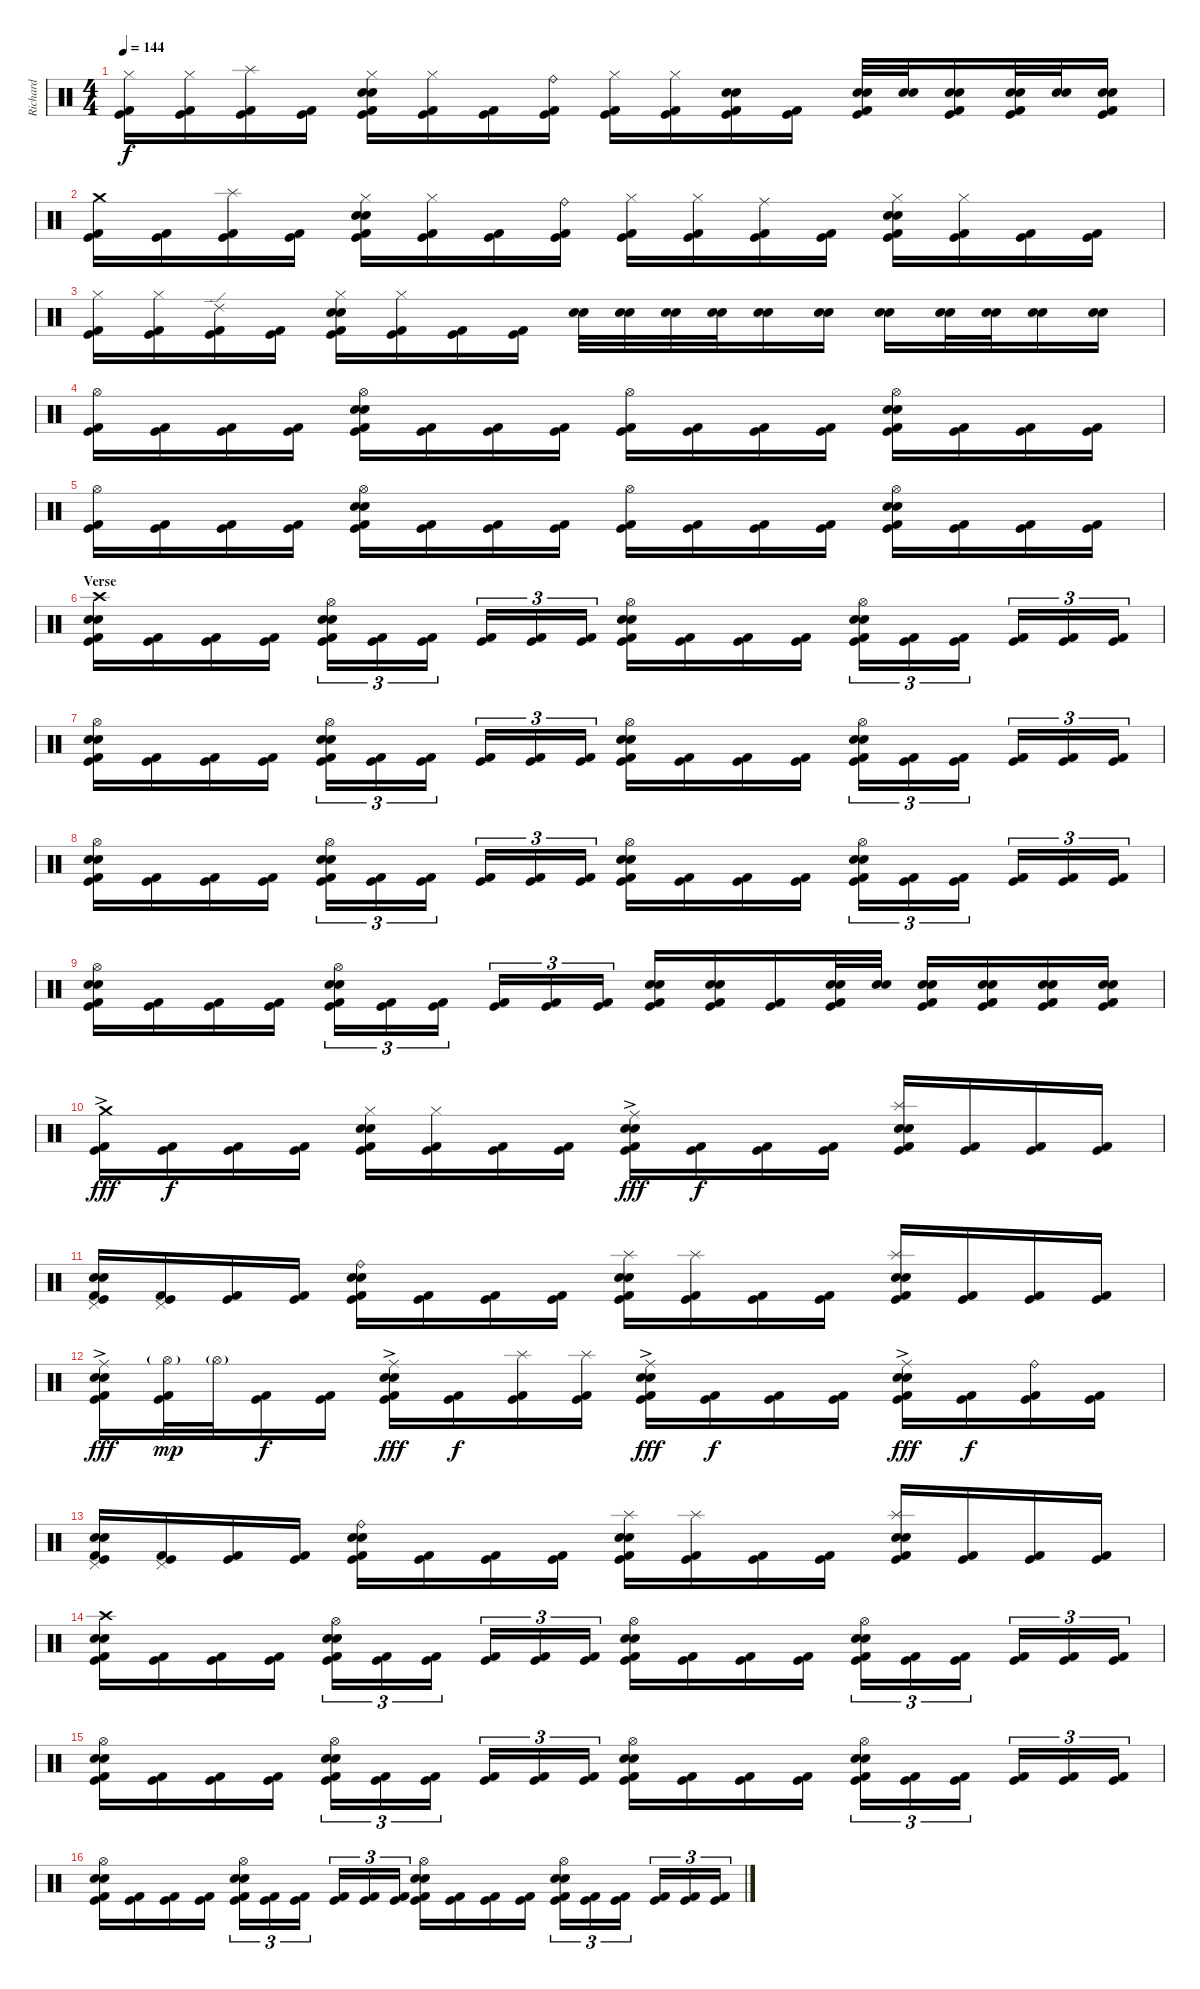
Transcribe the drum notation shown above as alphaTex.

\track ("Richard" "Richard") {instrument percussion}
\staff {score}
\articulation defaults
\ts (4 4)
\tempo 144
\clef neutral
\ks c
("Hi-Hat (closed)" "Kick (hit) 2" "Kick (hit)").16{dy f} ("Hi-Hat (closed)" "Kick (hit) 2" "Kick (hit)").16 ("Splash (hit)" "Kick (hit) 2" "Kick (hit)").16 ("Kick (hit) 2" "Kick (hit)").16 ("Hi-Hat (closed)" "Snare (hit) 2" "Electric Snare (hit)" "Kick (hit) 2" "Kick (hit)").16 ("Hi-Hat (closed)" "Kick (hit) 2" "Kick (hit)").16 ("Kick (hit) 2" "Kick (hit)").16 ("Ride (bell)" "Kick (hit) 2" "Kick (hit)").16 ("Hi-Hat (closed)" "Kick (hit) 2" "Kick (hit)").16 ("Hi-Hat (closed)" "Kick (hit) 2" "Kick (hit)").16 ("Snare (hit) 2" "Electric Snare (hit)" "Kick (hit) 2" "Kick (hit)").16 ("Kick (hit) 2" "Kick (hit)").16 ("Snare (hit) 2" "Electric Snare (hit)" "Kick (hit) 2" "Kick (hit)").32 ("Snare (hit) 2" "Electric Snare (hit)").32 ("Snare (hit) 2" "Electric Snare (hit)" "Kick (hit) 2" "Kick (hit)").16 ("Snare (hit) 2" "Electric Snare (hit)" "Kick (hit) 2" "Kick (hit)").32 ("Snare (hit) 2" "Electric Snare (hit)").32 ("Snare (hit) 2" "Electric Snare (hit)" "Kick (hit) 2" "Kick (hit)").16 |
("Crash medium (hit)" "Kick (hit) 2" "Kick (hit)").16 ("Kick (hit) 2" "Kick (hit)").16 ("Splash (hit)" "Kick (hit) 2" "Kick (hit)").16 ("Kick (hit) 2" "Kick (hit)").16 ("Hi-Hat (closed)" "Snare (hit) 2" "Electric Snare (hit)" "Kick (hit) 2" "Kick (hit)").16 ("Hi-Hat (closed)" "Kick (hit) 2" "Kick (hit)").16 ("Kick (hit) 2" "Kick (hit)").16 ("Ride (bell)" "Kick (hit) 2" "Kick (hit)").16 ("Hi-Hat (closed)" "Kick (hit) 2" "Kick (hit)").16 ("Hi-Hat (closed)" "Kick (hit) 2" "Kick (hit)").16 ("Ride (middle)" "Kick (hit) 2" "Kick (hit)").16 ("Kick (hit) 2" "Kick (hit)").16 ("Hi-Hat (closed)" "Snare (hit) 2" "Electric Snare (hit)" "Kick (hit) 2" "Kick (hit)").16 ("Hi-Hat (closed)" "Kick (hit) 2" "Kick (hit)").16 ("Kick (hit) 2" "Kick (hit)").16 ("Kick (hit) 2" "Kick (hit)").16 |
("Hi-Hat (closed)" "Kick (hit) 2" "Kick (hit)").16 ("Hi-Hat (closed)" "Kick (hit) 2" "Kick (hit)").16 ("Ride (edge) 2" "Kick (hit) 2" "Kick (hit)").16 ("Kick (hit) 2" "Kick (hit)").16 ("Hi-Hat (closed)" "Snare (hit) 2" "Electric Snare (hit)" "Kick (hit) 2" "Kick (hit)").16 ("Hi-Hat (closed)" "Kick (hit) 2" "Kick (hit)").16 ("Kick (hit) 2" "Kick (hit)").16 ("Kick (hit) 2" "Kick (hit)").16 ("Snare (hit) 2" "Electric Snare (hit)").32 ("Snare (hit) 2" "Electric Snare (hit)").32 ("Snare (hit) 2" "Electric Snare (hit)").32 ("Snare (hit) 2" "Electric Snare (hit)").32 ("Snare (hit) 2" "Electric Snare (hit)").16 ("Snare (hit) 2" "Electric Snare (hit)").16 ("Snare (hit) 2" "Electric Snare (hit)").16 ("Snare (hit) 2" "Electric Snare (hit)").32 ("Snare (hit) 2" "Electric Snare (hit)").32 ("Snare (hit) 2" "Electric Snare (hit)").16 ("Snare (hit) 2" "Electric Snare (hit)").16 |
("Hi-Hat (open)" "Kick (hit) 2" "Kick (hit)").16 ("Kick (hit) 2" "Kick (hit)").16 ("Kick (hit) 2" "Kick (hit)").16 ("Kick (hit) 2" "Kick (hit)").16 ("Hi-Hat (open)" "Snare (hit) 2" "Electric Snare (hit)" "Kick (hit) 2" "Kick (hit)").16 ("Kick (hit) 2" "Kick (hit)").16 ("Kick (hit) 2" "Kick (hit)").16 ("Kick (hit) 2" "Kick (hit)").16 ("Hi-Hat (open)" "Kick (hit) 2" "Kick (hit)").16 ("Kick (hit) 2" "Kick (hit)").16 ("Kick (hit) 2" "Kick (hit)").16 ("Kick (hit) 2" "Kick (hit)").16 ("Hi-Hat (open)" "Snare (hit) 2" "Electric Snare (hit)" "Kick (hit) 2" "Kick (hit)").16 ("Kick (hit) 2" "Kick (hit)").16 ("Kick (hit) 2" "Kick (hit)").16 ("Kick (hit) 2" "Kick (hit)").16 |
("Hi-Hat (open)" "Kick (hit) 2" "Kick (hit)").16 ("Kick (hit) 2" "Kick (hit)").16 ("Kick (hit) 2" "Kick (hit)").16 ("Kick (hit) 2" "Kick (hit)").16 ("Hi-Hat (open)" "Snare (hit) 2" "Electric Snare (hit)" "Kick (hit) 2" "Kick (hit)").16 ("Kick (hit) 2" "Kick (hit)").16 ("Kick (hit) 2" "Kick (hit)").16 ("Kick (hit) 2" "Kick (hit)").16 ("Hi-Hat (open)" "Kick (hit) 2" "Kick (hit)").16 ("Kick (hit) 2" "Kick (hit)").16 ("Kick (hit) 2" "Kick (hit)").16 ("Kick (hit) 2" "Kick (hit)").16 ("Hi-Hat (open)" "Snare (hit) 2" "Electric Snare (hit)" "Kick (hit) 2" "Kick (hit)").16 ("Kick (hit) 2" "Kick (hit)").16 ("Kick (hit) 2" "Kick (hit)").16 ("Kick (hit) 2" "Kick (hit)").16 |
\section ("" "Verse")
("Crash high (hit)" "Snare (hit) 2" "Electric Snare (hit)" "Kick (hit) 2" "Kick (hit)").16 ("Kick (hit) 2" "Kick (hit)").16 ("Kick (hit) 2" "Kick (hit)").16 ("Kick (hit) 2" "Kick (hit)").16 ("Hi-Hat (open)" "Snare (hit) 2" "Electric Snare (hit)" "Kick (hit) 2" "Kick (hit)").16{tu (3 2)} ("Kick (hit) 2" "Kick (hit)").16{tu (3 2)} ("Kick (hit) 2" "Kick (hit)").16{tu (3 2)} ("Kick (hit) 2" "Kick (hit)").16{tu (3 2)} ("Kick (hit) 2" "Kick (hit)").16{tu (3 2)} ("Kick (hit) 2" "Kick (hit)").16{tu (3 2)} ("Hi-Hat (open)" "Snare (hit) 2" "Electric Snare (hit)" "Kick (hit) 2" "Kick (hit)").16 ("Kick (hit) 2" "Kick (hit)").16 ("Kick (hit) 2" "Kick (hit)").16 ("Kick (hit) 2" "Kick (hit)").16 ("Hi-Hat (open)" "Snare (hit) 2" "Electric Snare (hit)" "Kick (hit) 2" "Kick (hit)").16{tu (3 2)} ("Kick (hit) 2" "Kick (hit)").16{tu (3 2)} ("Kick (hit) 2" "Kick (hit)").16{tu (3 2)} ("Kick (hit) 2" "Kick (hit)").16{tu (3 2)} ("Kick (hit) 2" "Kick (hit)").16{tu (3 2)} ("Kick (hit) 2" "Kick (hit)").16{tu (3 2)} |
("Hi-Hat (open)" "Snare (hit) 2" "Electric Snare (hit)" "Kick (hit) 2" "Kick (hit)").16 ("Kick (hit) 2" "Kick (hit)").16 ("Kick (hit) 2" "Kick (hit)").16 ("Kick (hit) 2" "Kick (hit)").16 ("Hi-Hat (open)" "Snare (hit) 2" "Electric Snare (hit)" "Kick (hit) 2" "Kick (hit)").16{tu (3 2)} ("Kick (hit) 2" "Kick (hit)").16{tu (3 2)} ("Kick (hit) 2" "Kick (hit)").16{tu (3 2)} ("Kick (hit) 2" "Kick (hit)").16{tu (3 2)} ("Kick (hit) 2" "Kick (hit)").16{tu (3 2)} ("Kick (hit) 2" "Kick (hit)").16{tu (3 2)} ("Hi-Hat (open)" "Snare (hit) 2" "Electric Snare (hit)" "Kick (hit) 2" "Kick (hit)").16 ("Kick (hit) 2" "Kick (hit)").16 ("Kick (hit) 2" "Kick (hit)").16 ("Kick (hit) 2" "Kick (hit)").16 ("Hi-Hat (open)" "Snare (hit) 2" "Electric Snare (hit)" "Kick (hit) 2" "Kick (hit)").16{tu (3 2)} ("Kick (hit) 2" "Kick (hit)").16{tu (3 2)} ("Kick (hit) 2" "Kick (hit)").16{tu (3 2)} ("Kick (hit) 2" "Kick (hit)").16{tu (3 2)} ("Kick (hit) 2" "Kick (hit)").16{tu (3 2)} ("Kick (hit) 2" "Kick (hit)").16{tu (3 2)} |
("Hi-Hat (open)" "Snare (hit) 2" "Electric Snare (hit)" "Kick (hit) 2" "Kick (hit)").16 ("Kick (hit) 2" "Kick (hit)").16 ("Kick (hit) 2" "Kick (hit)").16 ("Kick (hit) 2" "Kick (hit)").16 ("Hi-Hat (open)" "Snare (hit) 2" "Electric Snare (hit)" "Kick (hit) 2" "Kick (hit)").16{tu (3 2)} ("Kick (hit) 2" "Kick (hit)").16{tu (3 2)} ("Kick (hit) 2" "Kick (hit)").16{tu (3 2)} ("Kick (hit) 2" "Kick (hit)").16{tu (3 2)} ("Kick (hit) 2" "Kick (hit)").16{tu (3 2)} ("Kick (hit) 2" "Kick (hit)").16{tu (3 2)} ("Hi-Hat (open)" "Snare (hit) 2" "Electric Snare (hit)" "Kick (hit) 2" "Kick (hit)").16 ("Kick (hit) 2" "Kick (hit)").16 ("Kick (hit) 2" "Kick (hit)").16 ("Kick (hit) 2" "Kick (hit)").16 ("Hi-Hat (open)" "Snare (hit) 2" "Electric Snare (hit)" "Kick (hit) 2" "Kick (hit)").16{tu (3 2)} ("Kick (hit) 2" "Kick (hit)").16{tu (3 2)} ("Kick (hit) 2" "Kick (hit)").16{tu (3 2)} ("Kick (hit) 2" "Kick (hit)").16{tu (3 2)} ("Kick (hit) 2" "Kick (hit)").16{tu (3 2)} ("Kick (hit) 2" "Kick (hit)").16{tu (3 2)} |
("Hi-Hat (open)" "Snare (hit) 2" "Electric Snare (hit)" "Kick (hit) 2" "Kick (hit)").16 ("Kick (hit) 2" "Kick (hit)").16 ("Kick (hit) 2" "Kick (hit)").16 ("Kick (hit) 2" "Kick (hit)").16 ("Hi-Hat (open)" "Snare (hit) 2" "Electric Snare (hit)" "Kick (hit) 2" "Kick (hit)").16{tu (3 2)} ("Kick (hit) 2" "Kick (hit)").16{tu (3 2)} ("Kick (hit) 2" "Kick (hit)").16{tu (3 2)} ("Kick (hit) 2" "Kick (hit)").16{tu (3 2)} ("Kick (hit) 2" "Kick (hit)").16{tu (3 2)} ("Kick (hit) 2" "Kick (hit)").16{tu (3 2)} ("Snare (hit) 2" "Electric Snare (hit)" "Kick (hit) 2" "Kick (hit)").16 ("Snare (hit) 2" "Electric Snare (hit)" "Kick (hit) 2" "Kick (hit)").16 ("Kick (hit) 2" "Kick (hit)").16 ("Snare (hit) 2" "Electric Snare (hit)" "Kick (hit) 2" "Kick (hit)").32 ("Snare (hit) 2" "Electric Snare (hit)").32 ("Snare (hit) 2" "Electric Snare (hit)" "Kick (hit) 2" "Kick (hit)").16 ("Snare (hit) 2" "Electric Snare (hit)" "Kick (hit) 2" "Kick (hit)").16 ("Snare (hit) 2" "Electric Snare (hit)" "Kick (hit) 2" "Kick (hit)").16 ("Snare (hit) 2" "Electric Snare (hit)" "Kick (hit) 2" "Kick (hit)").16 |
("Crash medium (hit)"{ac} "Kick (hit) 2" "Kick (hit)").16{dy fff} ("Kick (hit) 2" "Kick (hit)").16{dy f} ("Kick (hit) 2" "Kick (hit)").16 ("Kick (hit) 2" "Kick (hit)").16 ("Hi-Hat (closed)" "Snare (hit) 2" "Electric Snare (hit)" "Kick (hit) 2" "Kick (hit)").16 ("Hi-Hat (closed)" "Kick (hit) 2" "Kick (hit)").16 ("Kick (hit) 2" "Kick (hit)").16 ("Kick (hit) 2" "Kick (hit)").16 ("Ride (middle)"{ac} "Snare (hit) 2" "Electric Snare (hit)" "Kick (hit) 2" "Kick (hit)").16{dy fff} ("Kick (hit) 2" "Kick (hit)").16{dy f} ("Kick (hit) 2" "Kick (hit)").16 ("Kick (hit) 2" "Kick (hit)").16 ("Splash (hit)" "Snare (hit) 2" "Electric Snare (hit)" "Kick (hit) 2" "Kick (hit)").16 ("Kick (hit) 2" "Kick (hit)").16 ("Kick (hit) 2" "Kick (hit)").16 ("Kick (hit) 2" "Kick (hit)").16 |
("Pedal Hi-Hat (hit)" "Snare (hit) 2" "Electric Snare (hit)" "Kick (hit) 2" "Kick (hit)").16 ("Pedal Hi-Hat (hit)" "Kick (hit) 2" "Kick (hit)").16 ("Kick (hit) 2" "Kick (hit)").16 ("Kick (hit) 2" "Kick (hit)").16 ("Ride (bell)" "Snare (hit) 2" "Electric Snare (hit)" "Kick (hit) 2" "Kick (hit)").16 ("Kick (hit) 2" "Kick (hit)").16 ("Kick (hit) 2" "Kick (hit)").16 ("Kick (hit) 2" "Kick (hit)").16 ("Splash (hit)" "Snare (hit) 2" "Electric Snare (hit)" "Kick (hit) 2" "Kick (hit)").16 ("Splash (hit)" "Kick (hit) 2" "Kick (hit)").16 ("Kick (hit) 2" "Kick (hit)").16 ("Kick (hit) 2" "Kick (hit)").16 ("Splash (hit)" "Snare (hit) 2" "Electric Snare (hit)" "Kick (hit) 2" "Kick (hit)").16 ("Kick (hit) 2" "Kick (hit)").16 ("Kick (hit) 2" "Kick (hit)").16 ("Kick (hit) 2" "Kick (hit)").16 |
("Ride (middle)"{ac} "Snare (hit) 2" "Electric Snare (hit)" "Kick (hit) 2" "Kick (hit)").16{dy fff} ("Hi-Hat (open)"{g} "Kick (hit) 2" "Kick (hit)").32{dy mp} "Hi-Hat (open)"{g}.32 ("Kick (hit) 2" "Kick (hit)").16{dy f} ("Kick (hit) 2" "Kick (hit)").16 ("Ride (middle)"{ac} "Snare (hit) 2" "Electric Snare (hit)" "Kick (hit) 2" "Kick (hit)").16{dy fff} ("Kick (hit) 2" "Kick (hit)").16{dy f} ("Splash (hit)" "Kick (hit) 2" "Kick (hit)").16 ("Splash (hit)" "Kick (hit) 2" "Kick (hit)").16 ("Ride (middle)"{ac} "Snare (hit) 2" "Electric Snare (hit)" "Kick (hit) 2" "Kick (hit)").16{dy fff} ("Kick (hit) 2" "Kick (hit)").16{dy f} ("Kick (hit) 2" "Kick (hit)").16 ("Kick (hit) 2" "Kick (hit)").16 ("Ride (middle)"{ac} "Snare (hit) 2" "Electric Snare (hit)" "Kick (hit) 2" "Kick (hit)").16{dy fff} ("Kick (hit) 2" "Kick (hit)").16{dy f} ("Ride (bell)" "Kick (hit) 2" "Kick (hit)").16 ("Kick (hit) 2" "Kick (hit)").16 |
("Pedal Hi-Hat (hit)" "Snare (hit) 2" "Electric Snare (hit)" "Kick (hit) 2" "Kick (hit)").16 ("Pedal Hi-Hat (hit)" "Kick (hit) 2" "Kick (hit)").16 ("Kick (hit) 2" "Kick (hit)").16 ("Kick (hit) 2" "Kick (hit)").16 ("Ride (bell)" "Snare (hit) 2" "Electric Snare (hit)" "Kick (hit) 2" "Kick (hit)").16 ("Kick (hit) 2" "Kick (hit)").16 ("Kick (hit) 2" "Kick (hit)").16 ("Kick (hit) 2" "Kick (hit)").16 ("Splash (hit)" "Snare (hit) 2" "Electric Snare (hit)" "Kick (hit) 2" "Kick (hit)").16 ("Splash (hit)" "Kick (hit) 2" "Kick (hit)").16 ("Kick (hit) 2" "Kick (hit)").16 ("Kick (hit) 2" "Kick (hit)").16 ("Splash (hit)" "Snare (hit) 2" "Electric Snare (hit)" "Kick (hit) 2" "Kick (hit)").16 ("Kick (hit) 2" "Kick (hit)").16 ("Kick (hit) 2" "Kick (hit)").16 ("Kick (hit) 2" "Kick (hit)").16 |
("Crash high (hit)" "Snare (hit) 2" "Electric Snare (hit)" "Kick (hit) 2" "Kick (hit)").16 ("Kick (hit) 2" "Kick (hit)").16 ("Kick (hit) 2" "Kick (hit)").16 ("Kick (hit) 2" "Kick (hit)").16 ("Hi-Hat (open)" "Snare (hit) 2" "Electric Snare (hit)" "Kick (hit) 2" "Kick (hit)").16{tu (3 2)} ("Kick (hit) 2" "Kick (hit)").16{tu (3 2)} ("Kick (hit) 2" "Kick (hit)").16{tu (3 2)} ("Kick (hit) 2" "Kick (hit)").16{tu (3 2)} ("Kick (hit) 2" "Kick (hit)").16{tu (3 2)} ("Kick (hit) 2" "Kick (hit)").16{tu (3 2)} ("Hi-Hat (open)" "Snare (hit) 2" "Electric Snare (hit)" "Kick (hit) 2" "Kick (hit)").16 ("Kick (hit) 2" "Kick (hit)").16 ("Kick (hit) 2" "Kick (hit)").16 ("Kick (hit) 2" "Kick (hit)").16 ("Hi-Hat (open)" "Snare (hit) 2" "Electric Snare (hit)" "Kick (hit) 2" "Kick (hit)").16{tu (3 2)} ("Kick (hit) 2" "Kick (hit)").16{tu (3 2)} ("Kick (hit) 2" "Kick (hit)").16{tu (3 2)} ("Kick (hit) 2" "Kick (hit)").16{tu (3 2)} ("Kick (hit) 2" "Kick (hit)").16{tu (3 2)} ("Kick (hit) 2" "Kick (hit)").16{tu (3 2)} |
("Hi-Hat (open)" "Snare (hit) 2" "Electric Snare (hit)" "Kick (hit) 2" "Kick (hit)").16 ("Kick (hit) 2" "Kick (hit)").16 ("Kick (hit) 2" "Kick (hit)").16 ("Kick (hit) 2" "Kick (hit)").16 ("Hi-Hat (open)" "Snare (hit) 2" "Electric Snare (hit)" "Kick (hit) 2" "Kick (hit)").16{tu (3 2)} ("Kick (hit) 2" "Kick (hit)").16{tu (3 2)} ("Kick (hit) 2" "Kick (hit)").16{tu (3 2)} ("Kick (hit) 2" "Kick (hit)").16{tu (3 2)} ("Kick (hit) 2" "Kick (hit)").16{tu (3 2)} ("Kick (hit) 2" "Kick (hit)").16{tu (3 2)} ("Hi-Hat (open)" "Snare (hit) 2" "Electric Snare (hit)" "Kick (hit) 2" "Kick (hit)").16 ("Kick (hit) 2" "Kick (hit)").16 ("Kick (hit) 2" "Kick (hit)").16 ("Kick (hit) 2" "Kick (hit)").16 ("Hi-Hat (open)" "Snare (hit) 2" "Electric Snare (hit)" "Kick (hit) 2" "Kick (hit)").16{tu (3 2)} ("Kick (hit) 2" "Kick (hit)").16{tu (3 2)} ("Kick (hit) 2" "Kick (hit)").16{tu (3 2)} ("Kick (hit) 2" "Kick (hit)").16{tu (3 2)} ("Kick (hit) 2" "Kick (hit)").16{tu (3 2)} ("Kick (hit) 2" "Kick (hit)").16{tu (3 2)} |
("Hi-Hat (open)" "Snare (hit) 2" "Electric Snare (hit)" "Kick (hit) 2" "Kick (hit)").16 ("Kick (hit) 2" "Kick (hit)").16 ("Kick (hit) 2" "Kick (hit)").16 ("Kick (hit) 2" "Kick (hit)").16 ("Hi-Hat (open)" "Snare (hit) 2" "Electric Snare (hit)" "Kick (hit) 2" "Kick (hit)").16{tu (3 2)} ("Kick (hit) 2" "Kick (hit)").16{tu (3 2)} ("Kick (hit) 2" "Kick (hit)").16{tu (3 2)} ("Kick (hit) 2" "Kick (hit)").16{tu (3 2)} ("Kick (hit) 2" "Kick (hit)").16{tu (3 2)} ("Kick (hit) 2" "Kick (hit)").16{tu (3 2)} ("Hi-Hat (open)" "Snare (hit) 2" "Electric Snare (hit)" "Kick (hit) 2" "Kick (hit)").16 ("Kick (hit) 2" "Kick (hit)").16 ("Kick (hit) 2" "Kick (hit)").16 ("Kick (hit) 2" "Kick (hit)").16 ("Hi-Hat (open)" "Snare (hit) 2" "Electric Snare (hit)" "Kick (hit) 2" "Kick (hit)").16{tu (3 2)} ("Kick (hit) 2" "Kick (hit)").16{tu (3 2)} ("Kick (hit) 2" "Kick (hit)").16{tu (3 2)} ("Kick (hit) 2" "Kick (hit)").16{tu (3 2)} ("Kick (hit) 2" "Kick (hit)").16{tu (3 2)} ("Kick (hit) 2" "Kick (hit)").16{tu (3 2)}
